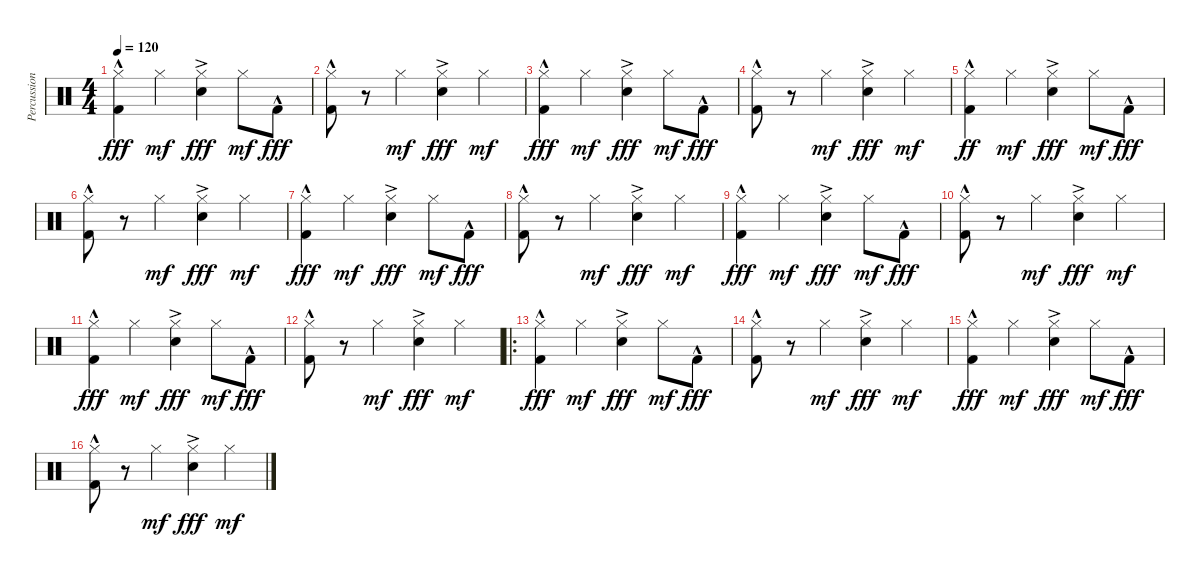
\track ("Percussion" "Percussion") {instrument percussion}
\staff {score}
\articulation defaults
\ts (4 4)
\tempo 120
\clef neutral
\ks c
("Hi-Hat (closed)" "Kick (hit) 2"{hac}).4{dy fff} "Hi-Hat (closed)".4{dy mf} ("Hi-Hat (closed)" "Electric Snare (hit)"{ac}).4{dy fff} "Hi-Hat (closed)".8{dy mf} "Kick (hit) 2"{hac}.8{dy fff} |
("Hi-Hat (closed)" "Kick (hit) 2"{hac}).8 r.8 "Hi-Hat (closed)".4{dy mf} ("Hi-Hat (closed)" "Electric Snare (hit)"{ac}).4{dy fff} "Hi-Hat (closed)".4{dy mf} |
("Hi-Hat (closed)" "Kick (hit) 2"{hac}).4{dy fff} "Hi-Hat (closed)".4{dy mf} ("Hi-Hat (closed)" "Electric Snare (hit)"{ac}).4{dy fff} "Hi-Hat (closed)".8{dy mf} "Kick (hit) 2"{hac}.8{dy fff} |
("Hi-Hat (closed)" "Kick (hit) 2"{hac}).8 r.8 "Hi-Hat (closed)".4{dy mf} ("Hi-Hat (closed)" "Electric Snare (hit)"{ac}).4{dy fff} "Hi-Hat (closed)".4{dy mf} |
("Hi-Hat (closed)" "Kick (hit) 2"{hac}).4{dy ff} "Hi-Hat (closed)".4{dy mf} ("Hi-Hat (closed)" "Electric Snare (hit)"{ac}).4{dy fff} "Hi-Hat (closed)".8{dy mf} "Kick (hit) 2"{hac}.8{dy fff} |
("Hi-Hat (closed)" "Kick (hit) 2"{hac}).8 r.8 "Hi-Hat (closed)".4{dy mf} ("Hi-Hat (closed)" "Electric Snare (hit)"{ac}).4{dy fff} "Hi-Hat (closed)".4{dy mf} |
("Hi-Hat (closed)" "Kick (hit) 2"{hac}).4{dy fff} "Hi-Hat (closed)".4{dy mf} ("Hi-Hat (closed)" "Electric Snare (hit)"{ac}).4{dy fff} "Hi-Hat (closed)".8{dy mf} "Kick (hit) 2"{hac}.8{dy fff} |
("Hi-Hat (closed)" "Kick (hit) 2"{hac}).8 r.8 "Hi-Hat (closed)".4{dy mf} ("Hi-Hat (closed)" "Electric Snare (hit)"{ac}).4{dy fff} "Hi-Hat (closed)".4{dy mf} |
("Hi-Hat (closed)" "Kick (hit) 2"{hac}).4{dy fff} "Hi-Hat (closed)".4{dy mf} ("Hi-Hat (closed)" "Electric Snare (hit)"{ac}).4{dy fff} "Hi-Hat (closed)".8{dy mf} "Kick (hit) 2"{hac}.8{dy fff} |
("Hi-Hat (closed)" "Kick (hit) 2"{hac}).8 r.8 "Hi-Hat (closed)".4{dy mf} ("Hi-Hat (closed)" "Electric Snare (hit)"{ac}).4{dy fff} "Hi-Hat (closed)".4{dy mf} |
("Hi-Hat (closed)" "Kick (hit) 2"{hac}).4{dy fff} "Hi-Hat (closed)".4{dy mf} ("Hi-Hat (closed)" "Electric Snare (hit)"{ac}).4{dy fff} "Hi-Hat (closed)".8{dy mf} "Kick (hit) 2"{hac}.8{dy fff} |
("Hi-Hat (closed)" "Kick (hit) 2"{hac}).8 r.8 "Hi-Hat (closed)".4{dy mf} ("Hi-Hat (closed)" "Electric Snare (hit)"{ac}).4{dy fff} "Hi-Hat (closed)".4{dy mf} |
\ro
("Hi-Hat (closed)" "Kick (hit) 2"{hac}).4{dy fff} "Hi-Hat (closed)".4{dy mf} ("Hi-Hat (closed)" "Electric Snare (hit)"{ac}).4{dy fff} "Hi-Hat (closed)".8{dy mf} "Kick (hit) 2"{hac}.8{dy fff} |
("Hi-Hat (closed)" "Kick (hit) 2"{hac}).8 r.8 "Hi-Hat (closed)".4{dy mf} ("Hi-Hat (closed)" "Electric Snare (hit)"{ac}).4{dy fff} "Hi-Hat (closed)".4{dy mf} |
("Hi-Hat (closed)" "Kick (hit) 2"{hac}).4{dy fff} "Hi-Hat (closed)".4{dy mf} ("Hi-Hat (closed)" "Electric Snare (hit)"{ac}).4{dy fff} "Hi-Hat (closed)".8{dy mf} "Kick (hit) 2"{hac}.8{dy fff} |
("Hi-Hat (closed)" "Kick (hit) 2"{hac}).8 r.8 "Hi-Hat (closed)".4{dy mf} ("Hi-Hat (closed)" "Electric Snare (hit)"{ac}).4{dy fff} "Hi-Hat (closed)".4{dy mf}
